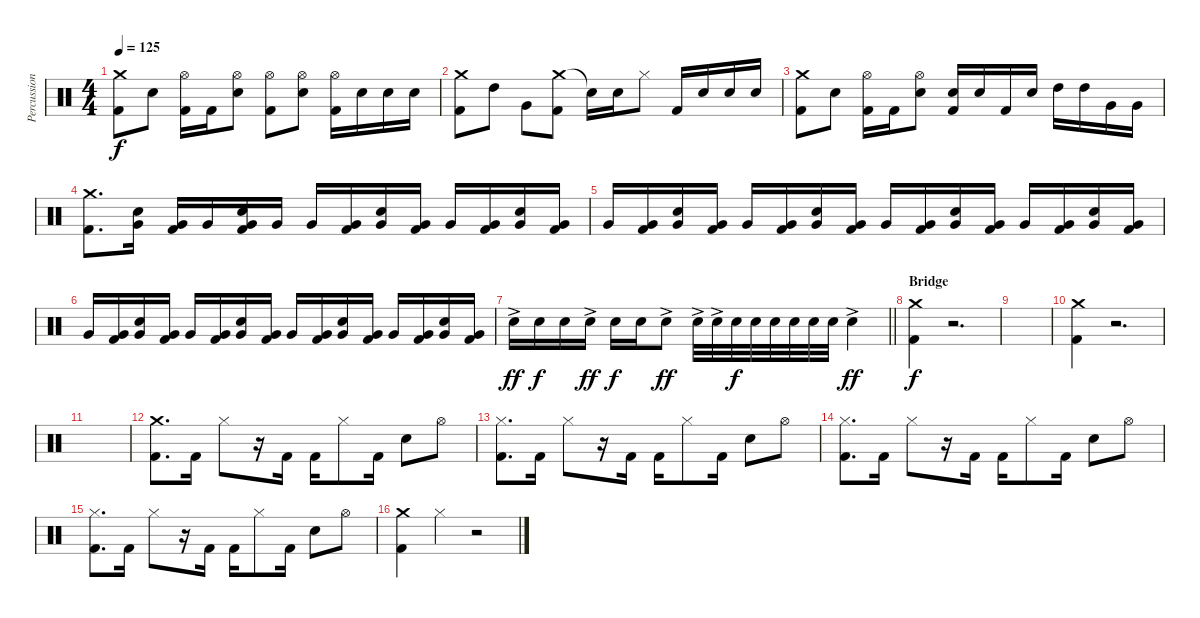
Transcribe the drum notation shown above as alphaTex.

\track ("Percussion" "Percussion") {instrument percussion}
\staff {score}
\articulation defaults
\ts (4 4)
\tempo 125
\clef neutral
\ks c
("Crash medium (hit)" "Kick (hit) 2").8{dy f} "Electric Snare (hit)".8 ("Hi-Hat (open)" "Kick (hit) 2").16 "Kick (hit) 2".16 ("Hi-Hat (open)" "Electric Snare (hit)").8 ("Hi-Hat (open)" "Kick (hit) 2").8 ("Hi-Hat (open)" "Electric Snare (hit)").8 ("Hi-Hat (open)" "Kick (hit) 2").16 "Electric Snare (hit)".16 "Electric Snare (hit)".16 "Electric Snare (hit)".16 |
("Crash medium (hit)" "Kick (hit) 2").8 "High Tom (hit)".8 "Very Low Tom (hit)".8 ("Crash medium (hit)" "Kick (hit) 2").8 "Snare (hit)"{t}.16 "Electric Snare (hit)".16 "Hi-Hat (closed)".8 "Kick (hit) 2".16 "Electric Snare (hit)".16 "Electric Snare (hit)".16 "Electric Snare (hit)".16 |
("Crash medium (hit)" "Kick (hit) 2").8 "Electric Snare (hit)".8 ("Hi-Hat (open)" "Kick (hit) 2").16 "Kick (hit) 2".16 ("Hi-Hat (open)" "Electric Snare (hit)").8 ("Electric Snare (hit)" "Kick (hit) 2").16 "Electric Snare (hit)".16 "Kick (hit) 2".16 "Electric Snare (hit)".16 "High Tom (hit)".16 "High Tom (hit)".16 "Very Low Tom (hit)".16 "Very Low Tom (hit)".16 |
("Crash medium (hit)" "Kick (hit) 2").8{d} ("Very Low Tom (hit)" "Electric Snare (hit)").16 ("Very Low Tom (hit)" "Kick (hit) 2").16 "Very Low Tom (hit)".16 ("Very Low Tom (hit)" "Electric Snare (hit)" "Kick (hit) 2").16 "Very Low Tom (hit)".16 "Very Low Tom (hit)".16 ("Very Low Tom (hit)" "Kick (hit) 2").16 ("Very Low Tom (hit)" "Electric Snare (hit)").16 ("Very Low Tom (hit)" "Kick (hit) 2").16 "Very Low Tom (hit)".16 ("Very Low Tom (hit)" "Kick (hit) 2").16 ("Very Low Tom (hit)" "Electric Snare (hit)").16 ("Very Low Tom (hit)" "Kick (hit) 2").16 |
"Very Low Tom (hit)".16 ("Very Low Tom (hit)" "Kick (hit) 2").16 ("Very Low Tom (hit)" "Electric Snare (hit)").16 ("Very Low Tom (hit)" "Kick (hit) 2").16 "Very Low Tom (hit)".16 ("Very Low Tom (hit)" "Kick (hit) 2").16 ("Very Low Tom (hit)" "Electric Snare (hit)").16 ("Very Low Tom (hit)" "Kick (hit) 2").16 "Very Low Tom (hit)".16 ("Very Low Tom (hit)" "Kick (hit) 2").16 ("Very Low Tom (hit)" "Electric Snare (hit)").16 ("Very Low Tom (hit)" "Kick (hit) 2").16 "Very Low Tom (hit)".16 ("Very Low Tom (hit)" "Kick (hit) 2").16 ("Very Low Tom (hit)" "Electric Snare (hit)").16 ("Very Low Tom (hit)" "Kick (hit) 2").16 |
"Very Low Tom (hit)".16 ("Very Low Tom (hit)" "Kick (hit) 2").16 ("Very Low Tom (hit)" "Electric Snare (hit)").16 ("Very Low Tom (hit)" "Kick (hit) 2").16 "Very Low Tom (hit)".16 ("Very Low Tom (hit)" "Kick (hit) 2").16 ("Very Low Tom (hit)" "Electric Snare (hit)").16 ("Very Low Tom (hit)" "Kick (hit) 2").16 "Very Low Tom (hit)".16 ("Very Low Tom (hit)" "Kick (hit) 2").16 ("Very Low Tom (hit)" "Electric Snare (hit)").16 ("Very Low Tom (hit)" "Kick (hit) 2").16 "Very Low Tom (hit)".16 ("Very Low Tom (hit)" "Kick (hit) 2").16 ("Very Low Tom (hit)" "Electric Snare (hit)").16 ("Very Low Tom (hit)" "Kick (hit) 2").16 |
\barLineRight lightlight "Electric Snare (hit)"{ac}.16{dy ff} "Electric Snare (hit)".16{dy f} "Electric Snare (hit)".16 "Electric Snare (hit)"{ac}.16{dy ff} "Electric Snare (hit)".16{dy f} "Electric Snare (hit)".16 "Electric Snare (hit)"{ac}.8{dy ff} "Electric Snare (hit)"{ac}.32 "Electric Snare (hit)"{ac}.32 "Electric Snare (hit)".32{dy f} "Electric Snare (hit)".32 "Electric Snare (hit)".32 "Electric Snare (hit)".32 "Electric Snare (hit)".32 "Electric Snare (hit)".32 "Electric Snare (hit)"{ac}.4{dy ff}
|
\section ("" "Bridge")
("Crash medium (hit)" "Kick (hit) 2").4{dy f} r.2{d} |
|
("Crash medium (hit)" "Kick (hit) 2").4 r.2{d} |
|
("Crash medium (hit)" "Kick (hit) 2").8{d} "Kick (hit) 2".16 "Hi-Hat (closed)".8 r.16 "Kick (hit) 2".16 "Kick (hit) 2".16 "Hi-Hat (closed)".8 "Kick (hit) 2".16 "Electric Snare (hit)".8 "Hi-Hat (open)".8 |
("Hi-Hat (closed)" "Kick (hit) 2").8{d} "Kick (hit) 2".16 "Hi-Hat (closed)".8 r.16 "Kick (hit) 2".16 "Kick (hit) 2".16 "Hi-Hat (closed)".8 "Kick (hit) 2".16 "Electric Snare (hit)".8 "Hi-Hat (open)".8 |
("Hi-Hat (closed)" "Kick (hit) 2").8{d} "Kick (hit) 2".16 "Hi-Hat (closed)".8 r.16 "Kick (hit) 2".16 "Kick (hit) 2".16 "Hi-Hat (closed)".8 "Kick (hit) 2".16 "Electric Snare (hit)".8 "Hi-Hat (open)".8 |
("Hi-Hat (closed)" "Kick (hit) 2").8{d} "Kick (hit) 2".16 "Hi-Hat (closed)".8 r.16 "Kick (hit) 2".16 "Kick (hit) 2".16 "Hi-Hat (closed)".8 "Kick (hit) 2".16 "Electric Snare (hit)".8 "Hi-Hat (open)".8 |
("Crash medium (hit)" "Kick (hit) 2").4 "Hi-Hat (closed)".4 r.2
